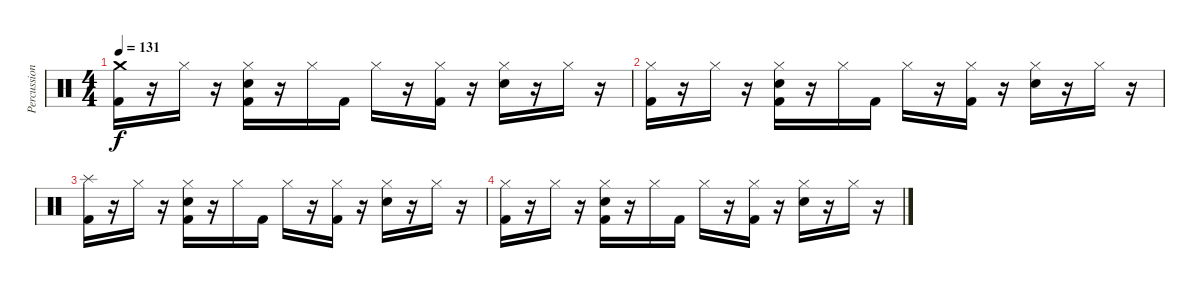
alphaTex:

\track ("Percussion" "Percussion") {instrument percussion}
\staff {score}
\articulation defaults
\ts (4 4)
\tempo 131
\clef neutral
\ks c
("Crash medium (hit)" "Kick (hit) 2").16{dy f} r.16 "Hi-Hat (closed)".16 r.16 ("Hi-Hat (closed)" "Electric Snare (hit)" "Kick (hit) 2").16{volume 2} r.16 "Hi-Hat (closed)".16 "Kick (hit) 2".16 "Hi-Hat (closed)".16 r.16 ("Hi-Hat (closed)" "Kick (hit) 2").16 r.16 ("Hi-Hat (closed)" "Electric Snare (hit)").16 r.16 "Hi-Hat (closed)".16 r.16 |
("Hi-Hat (closed)" "Kick (hit) 2").16 r.16 "Hi-Hat (closed)".16 r.16 ("Hi-Hat (closed)" "Electric Snare (hit)" "Kick (hit) 2").16 r.16 "Hi-Hat (closed)".16 "Kick (hit) 2".16 "Hi-Hat (closed)".16 r.16 ("Hi-Hat (closed)" "Kick (hit) 2").16 r.16 ("Hi-Hat (closed)" "Electric Snare (hit)").16 r.16 "Hi-Hat (closed)".16 r.16 |
("Splash (hit)" "Kick (hit) 2").16 r.16 "Hi-Hat (closed)".16 r.16 ("Hi-Hat (closed)" "Electric Snare (hit)" "Kick (hit) 2").16 r.16 "Hi-Hat (closed)".16 "Kick (hit) 2".16 "Hi-Hat (closed)".16 r.16 ("Hi-Hat (closed)" "Kick (hit) 2").16 r.16 ("Hi-Hat (closed)" "Electric Snare (hit)").16 r.16 "Hi-Hat (closed)".16 r.16 |
("Hi-Hat (closed)" "Kick (hit) 2").16 r.16 "Hi-Hat (closed)".16 r.16 ("Hi-Hat (closed)" "Electric Snare (hit)" "Kick (hit) 2").16 r.16 "Hi-Hat (closed)".16 "Kick (hit) 2".16 "Hi-Hat (closed)".16 r.16 ("Hi-Hat (closed)" "Kick (hit) 2").16 r.16 ("Hi-Hat (closed)" "Electric Snare (hit)").16 r.16 "Hi-Hat (closed)".16 r.16
